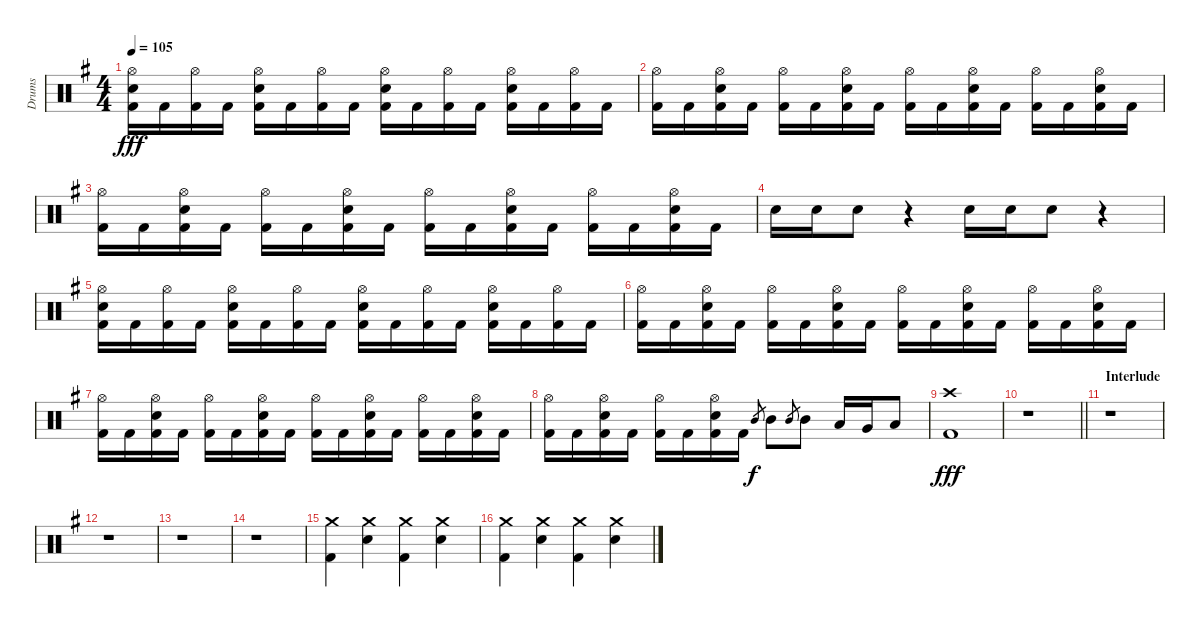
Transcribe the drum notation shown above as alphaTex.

\track ("Drums" "Drums") {instrument percussion}
\staff {score}
\articulation defaults
\ts (4 4)
\tempo 105
\clef neutral
\ks eminor
("Hi-Hat (open)" "Snare (hit) 2" "Kick (hit) 2").16{dy fff} "Kick (hit) 2".16 ("Hi-Hat (open)" "Kick (hit) 2").16 "Kick (hit) 2".16 ("Hi-Hat (open)" "Snare (hit) 2" "Kick (hit) 2").16 "Kick (hit) 2".16 ("Hi-Hat (open)" "Kick (hit) 2").16 "Kick (hit) 2".16 ("Hi-Hat (open)" "Snare (hit) 2" "Kick (hit) 2").16 "Kick (hit) 2".16 ("Hi-Hat (open)" "Kick (hit) 2").16 "Kick (hit) 2".16 ("Hi-Hat (open)" "Snare (hit) 2" "Kick (hit) 2").16 "Kick (hit) 2".16 ("Hi-Hat (open)" "Kick (hit) 2").16 "Kick (hit) 2".16 |
("Hi-Hat (open)" "Kick (hit) 2").16 "Kick (hit) 2".16 ("Hi-Hat (open)" "Snare (hit) 2" "Kick (hit) 2").16 "Kick (hit) 2".16 ("Hi-Hat (open)" "Kick (hit) 2").16 "Kick (hit) 2".16 ("Hi-Hat (open)" "Snare (hit) 2" "Kick (hit) 2").16 "Kick (hit) 2".16 ("Hi-Hat (open)" "Kick (hit) 2").16 "Kick (hit) 2".16 ("Hi-Hat (open)" "Snare (hit) 2" "Kick (hit) 2").16 "Kick (hit) 2".16 ("Hi-Hat (open)" "Kick (hit) 2").16 "Kick (hit) 2".16 ("Hi-Hat (open)" "Snare (hit) 2" "Kick (hit) 2").16 "Kick (hit) 2".16 |
("Hi-Hat (open)" "Kick (hit) 2").16 "Kick (hit) 2".16 ("Hi-Hat (open)" "Snare (hit) 2" "Kick (hit) 2").16 "Kick (hit) 2".16 ("Hi-Hat (open)" "Kick (hit) 2").16 "Kick (hit) 2".16 ("Hi-Hat (open)" "Snare (hit) 2" "Kick (hit) 2").16 "Kick (hit) 2".16 ("Hi-Hat (open)" "Kick (hit) 2").16 "Kick (hit) 2".16 ("Hi-Hat (open)" "Snare (hit) 2" "Kick (hit) 2").16 "Kick (hit) 2".16 ("Hi-Hat (open)" "Kick (hit) 2").16 "Kick (hit) 2".16 ("Hi-Hat (open)" "Snare (hit) 2" "Kick (hit) 2").16 "Kick (hit) 2".16 |
"Snare (hit) 2".16 "Snare (hit) 2".16 "Snare (hit) 2".8 r.4 "Snare (hit) 2".16 "Snare (hit) 2".16 "Snare (hit) 2".8 r.4 |
("Hi-Hat (open)" "Snare (hit) 2" "Kick (hit) 2").16 "Kick (hit) 2".16 ("Hi-Hat (open)" "Kick (hit) 2").16 "Kick (hit) 2".16 ("Hi-Hat (open)" "Snare (hit) 2" "Kick (hit) 2").16 "Kick (hit) 2".16 ("Hi-Hat (open)" "Kick (hit) 2").16 "Kick (hit) 2".16 ("Hi-Hat (open)" "Snare (hit) 2" "Kick (hit) 2").16 "Kick (hit) 2".16 ("Hi-Hat (open)" "Kick (hit) 2").16 "Kick (hit) 2".16 ("Hi-Hat (open)" "Snare (hit) 2" "Kick (hit) 2").16 "Kick (hit) 2".16 ("Hi-Hat (open)" "Kick (hit) 2").16 "Kick (hit) 2".16 |
("Hi-Hat (open)" "Kick (hit) 2").16 "Kick (hit) 2".16 ("Hi-Hat (open)" "Snare (hit) 2" "Kick (hit) 2").16 "Kick (hit) 2".16 ("Hi-Hat (open)" "Kick (hit) 2").16 "Kick (hit) 2".16 ("Hi-Hat (open)" "Snare (hit) 2" "Kick (hit) 2").16 "Kick (hit) 2".16 ("Hi-Hat (open)" "Kick (hit) 2").16 "Kick (hit) 2".16 ("Hi-Hat (open)" "Snare (hit) 2" "Kick (hit) 2").16 "Kick (hit) 2".16 ("Hi-Hat (open)" "Kick (hit) 2").16 "Kick (hit) 2".16 ("Hi-Hat (open)" "Snare (hit) 2" "Kick (hit) 2").16 "Kick (hit) 2".16 |
("Hi-Hat (open)" "Kick (hit) 2").16 "Kick (hit) 2".16 ("Hi-Hat (open)" "Snare (hit) 2" "Kick (hit) 2").16 "Kick (hit) 2".16 ("Hi-Hat (open)" "Kick (hit) 2").16 "Kick (hit) 2".16 ("Hi-Hat (open)" "Snare (hit) 2" "Kick (hit) 2").16 "Kick (hit) 2".16 ("Hi-Hat (open)" "Kick (hit) 2").16 "Kick (hit) 2".16 ("Hi-Hat (open)" "Snare (hit) 2" "Kick (hit) 2").16 "Kick (hit) 2".16 ("Hi-Hat (open)" "Kick (hit) 2").16 "Kick (hit) 2".16 ("Hi-Hat (open)" "Snare (hit) 2" "Kick (hit) 2").16 "Kick (hit) 2".16 |
("Hi-Hat (open)" "Kick (hit) 2").16 "Kick (hit) 2".16 ("Hi-Hat (open)" "Snare (hit) 2" "Kick (hit) 2").16 "Kick (hit) 2".16 ("Hi-Hat (open)" "Kick (hit) 2").16 "Kick (hit) 2".16 ("Hi-Hat (open)" "Snare (hit) 2" "Kick (hit) 2").16 "Kick (hit) 2".16 "Mid Tom (hit)".8{gr dy f} "Mid Tom (hit)".8 "Mid Tom (hit)".8{gr} "Mid Tom (hit)".8 "Low Tom (hit)".16 "Very Low Tom (hit)".16 "Low Floor Tom (hit)".8 |
("Crash high (hit)" "Kick (hit) 2").1{dy fff} |
\barLineRight lightlight
r.1 |
\section ("" "Interlude")
r.1 |
r.1 |
r.1 |
r.1 |
("Crash medium (hit)" "Kick (hit) 2").4 ("Crash medium (hit)" "Snare (hit) 2").4 ("Crash medium (hit)" "Kick (hit) 2").4 ("Crash medium (hit)" "Snare (hit) 2").4 |
("Crash medium (hit)" "Kick (hit) 2").4 ("Crash medium (hit)" "Snare (hit) 2").4 ("Crash medium (hit)" "Kick (hit) 2").4 ("Crash medium (hit)" "Snare (hit) 2").4
